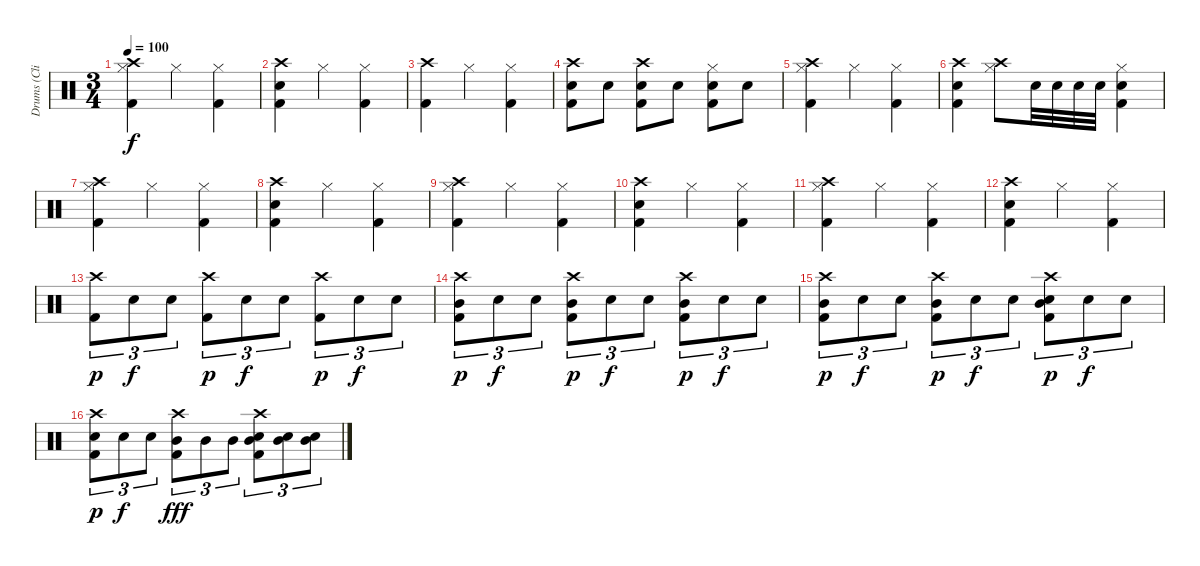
\track ("Drums (Clive Bunker)" "Drums (Cli") {instrument percussion}
\staff {score}
\articulation defaults
\ts (3 4)
\tempo 100
\clef neutral
\ks c
("Crash high (hit)" "Hi-Hat (closed)" "Kick (hit) 2").4{dy f} "Hi-Hat (closed)".4 ("Hi-Hat (closed)" "Kick (hit) 2").4 |
("Crash high (hit)" "Snare (hit) 2" "Kick (hit) 2").4 "Hi-Hat (closed)".4 ("Hi-Hat (closed)" "Kick (hit) 2").4 |
("Crash high (hit)" "Kick (hit) 2").4 "Hi-Hat (closed)".4 ("Hi-Hat (closed)" "Kick (hit) 2").4 |
("Crash high (hit)" "Snare (hit) 2" "Kick (hit) 2").8 "Snare (hit) 2".8 ("Crash high (hit)" "Snare (hit) 2" "Kick (hit) 2").8 "Snare (hit) 2".8 ("Hi-Hat (closed)" "Snare (hit) 2" "Kick (hit) 2").8 "Snare (hit) 2".8 |
("Crash high (hit)" "Hi-Hat (closed)" "Kick (hit) 2").4 "Hi-Hat (closed)".4 ("Hi-Hat (closed)" "Kick (hit) 2").4 |
("Crash high (hit)" "Snare (hit) 2" "Kick (hit) 2").4 ("Crash high (hit)" "Hi-Hat (closed)").8 "Snare (hit) 2".32 "Snare (hit) 2".32 "Snare (hit) 2".32 "Snare (hit) 2".32 ("Hi-Hat (closed)" "Snare (hit) 2" "Kick (hit) 2").4 |
("Crash high (hit)" "Hi-Hat (closed)" "Kick (hit) 2").4 "Hi-Hat (closed)".4 ("Hi-Hat (closed)" "Kick (hit) 2").4 |
("Crash high (hit)" "Snare (hit) 2" "Kick (hit) 2").4 "Hi-Hat (closed)".4 ("Hi-Hat (closed)" "Kick (hit) 2").4 |
("Crash high (hit)" "Hi-Hat (closed)" "Kick (hit) 2").4 "Hi-Hat (closed)".4 ("Hi-Hat (closed)" "Kick (hit) 2").4 |
("Crash high (hit)" "Snare (hit) 2" "Kick (hit) 2").4 "Hi-Hat (closed)".4 ("Hi-Hat (closed)" "Kick (hit) 2").4 |
("Crash high (hit)" "Hi-Hat (closed)" "Kick (hit) 2").4 "Hi-Hat (closed)".4 ("Hi-Hat (closed)" "Kick (hit) 2").4 |
("Crash high (hit)" "Snare (hit) 2" "Kick (hit) 2").4 "Hi-Hat (closed)".4 ("Hi-Hat (closed)" "Kick (hit) 2").4 |
("Crash high (hit)" "Kick (hit) 2").8{tu (3 2) dy p} "Snare (hit) 2".8{tu (3 2) dy f} "Snare (hit) 2".8{tu (3 2)} ("Crash high (hit)" "Kick (hit) 2").8{tu (3 2) dy p} "Snare (hit) 2".8{tu (3 2) dy f} "Snare (hit) 2".8{tu (3 2)} ("Crash high (hit)" "Kick (hit) 2").8{tu (3 2) dy p} "Snare (hit) 2".8{tu (3 2) dy f} "Snare (hit) 2".8{tu (3 2)} |
("Crash high (hit)" "Mid Tom (hit)" "Kick (hit) 2").8{tu (3 2) dy p} "Snare (hit) 2".8{tu (3 2) dy f} "Snare (hit) 2".8{tu (3 2)} ("Crash high (hit)" "Mid Tom (hit)" "Kick (hit) 2").8{tu (3 2) dy p} "Snare (hit) 2".8{tu (3 2) dy f} "Snare (hit) 2".8{tu (3 2)} ("Crash high (hit)" "Mid Tom (hit)" "Kick (hit) 2").8{tu (3 2) dy p} "Snare (hit) 2".8{tu (3 2) dy f} "Snare (hit) 2".8{tu (3 2)} |
("Crash high (hit)" "Mid Tom (hit)" "Kick (hit) 2").8{tu (3 2) dy p} "Snare (hit) 2".8{tu (3 2) dy f} "Snare (hit) 2".8{tu (3 2)} ("Crash high (hit)" "Mid Tom (hit)" "Kick (hit) 2").8{tu (3 2) dy p} "Snare (hit) 2".8{tu (3 2) dy f} "Snare (hit) 2".8{tu (3 2)} ("Crash high (hit)" "Snare (hit) 2" "Mid Tom (hit)" "Kick (hit) 2").8{tu (3 2) dy p} "Snare (hit) 2".8{tu (3 2) dy f} "Snare (hit) 2".8{tu (3 2)} |
("Crash high (hit)" "Snare (hit) 2" "Kick (hit) 2").8{tu (3 2) dy p} "Snare (hit) 2".8{tu (3 2) dy f} "Snare (hit) 2".8{tu (3 2)} ("Crash high (hit)" "Mid Tom (hit)" "Kick (hit) 2").8{tu (3 2) dy fff} "Mid Tom (hit)".8{tu (3 2)} "Mid Tom (hit)".8{tu (3 2)} ("Crash high (hit)" "Snare (hit) 2" "Mid Tom (hit)" "Kick (hit) 2").8{tu (3 2)} ("Snare (hit) 2" "Mid Tom (hit)").8{tu (3 2)} ("Snare (hit) 2" "Mid Tom (hit)").8{tu (3 2)}
